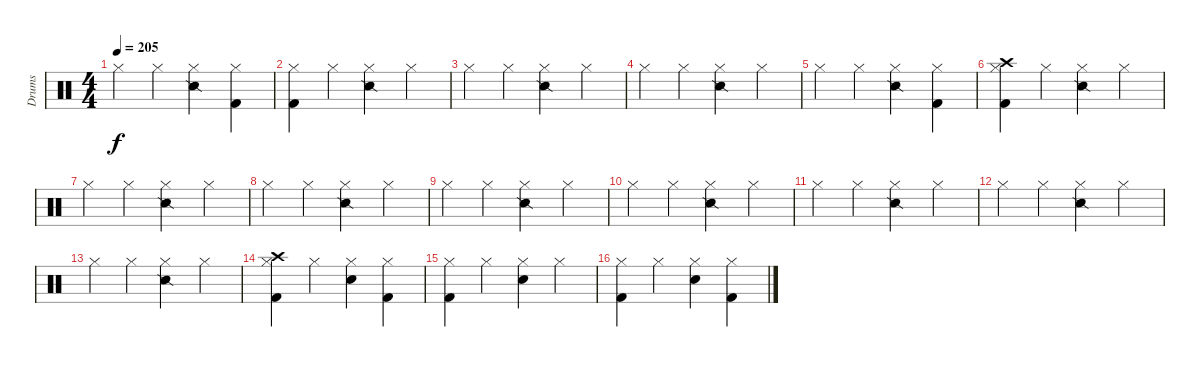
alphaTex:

\track ("Drums" "Drums") {instrument percussion}
\staff {score}
\articulation defaults
\ts (4 4)
\tempo 205
\clef neutral
\ks c "Hi-Hat (closed)".4{dy f} "Hi-Hat (closed)".4
("Snare (side stick) 2" "Hi-Hat (closed)").4 ("Kick (hit) 2" "Hi-Hat (closed)").4 |
("Kick (hit) 2" "Hi-Hat (closed)").4 "Hi-Hat (closed)".4 ("Snare (side stick) 2" "Hi-Hat (closed)").4 "Hi-Hat (closed)".4 |
"Hi-Hat (closed)".4 "Hi-Hat (closed)".4 ("Snare (side stick) 2" "Hi-Hat (closed)").4 "Hi-Hat (closed)".4 |
"Hi-Hat (closed)".4 "Hi-Hat (closed)".4 ("Snare (side stick) 2" "Hi-Hat (closed)").4 "Hi-Hat (closed)".4 |
"Hi-Hat (closed)".4 "Hi-Hat (closed)".4 ("Snare (side stick) 2" "Hi-Hat (closed)").4 ("Kick (hit) 2" "Hi-Hat (closed)").4 |
("Kick (hit) 2" "Crash high (hit)" "Hi-Hat (closed)").4 "Hi-Hat (closed)".4 ("Snare (side stick) 2" "Hi-Hat (closed)").4 "Hi-Hat (closed)".4 |
"Hi-Hat (closed)".4 "Hi-Hat (closed)".4 ("Snare (side stick) 2" "Hi-Hat (closed)").4 "Hi-Hat (closed)".4 |
"Hi-Hat (closed)".4 "Hi-Hat (closed)".4 ("Snare (side stick) 2" "Hi-Hat (closed)").4 "Hi-Hat (closed)".4 |
"Hi-Hat (closed)".4 "Hi-Hat (closed)".4 ("Snare (side stick) 2" "Hi-Hat (closed)").4 "Hi-Hat (closed)".4 |
"Hi-Hat (closed)".4 "Hi-Hat (closed)".4 ("Snare (side stick) 2" "Hi-Hat (closed)").4 "Hi-Hat (closed)".4 |
"Hi-Hat (closed)".4 "Hi-Hat (closed)".4 ("Snare (side stick) 2" "Hi-Hat (closed)").4 "Hi-Hat (closed)".4 |
"Hi-Hat (closed)".4 "Hi-Hat (closed)".4 ("Snare (side stick) 2" "Hi-Hat (closed)").4 "Hi-Hat (closed)".4 |
"Hi-Hat (closed)".4 "Hi-Hat (closed)".4 ("Snare (side stick) 2" "Hi-Hat (closed)").4 "Hi-Hat (closed)".4 |
("Crash high (hit)" "Kick (hit) 2" "Hi-Hat (closed)").4 "Hi-Hat (closed)".4 ("Snare (hit) 2" "Hi-Hat (closed)").4 ("Kick (hit) 2" "Hi-Hat (closed)").4 |
("Kick (hit) 2" "Hi-Hat (closed)").4 "Hi-Hat (closed)".4 ("Snare (hit) 2" "Hi-Hat (closed)").4 "Hi-Hat (closed)".4 |
("Kick (hit) 2" "Hi-Hat (closed)").4 "Hi-Hat (closed)".4 ("Snare (hit) 2" "Hi-Hat (closed)").4 ("Kick (hit) 2" "Hi-Hat (closed)").4
